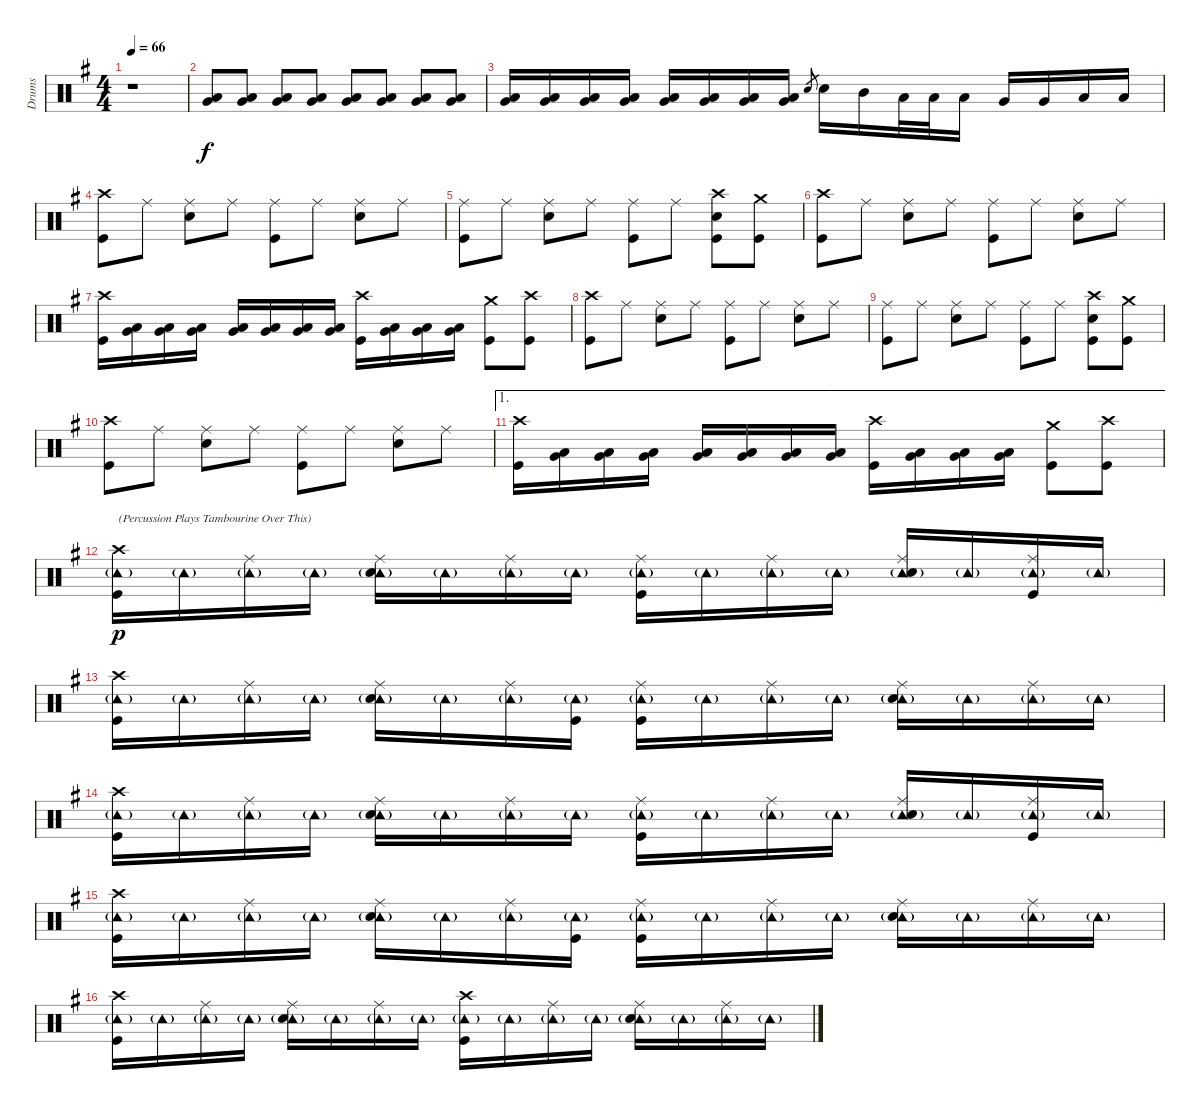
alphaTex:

\track ("Drums" "Drums") {instrument percussion}
\staff {score}
\articulation defaults
\ts (4 4)
\tempo 66
\clef neutral
\ks g
r.1{dy mp} |
("Very Low Tom (hit)" "Low Floor Tom (hit)").8{dy f volume 13} ("Very Low Tom (hit)" "Low Floor Tom (hit)").8 ("Very Low Tom (hit)" "Low Floor Tom (hit)").8 ("Very Low Tom (hit)" "Low Floor Tom (hit)").8 ("Very Low Tom (hit)" "Low Floor Tom (hit)").8 ("Very Low Tom (hit)" "Low Floor Tom (hit)").8 ("Very Low Tom (hit)" "Low Floor Tom (hit)").8 ("Very Low Tom (hit)" "Low Floor Tom (hit)").8 |
("Very Low Tom (hit)" "Low Floor Tom (hit)").16 ("Very Low Tom (hit)" "Low Floor Tom (hit)").16 ("Very Low Tom (hit)" "Low Floor Tom (hit)").16 ("Very Low Tom (hit)" "Low Floor Tom (hit)").16 ("Very Low Tom (hit)" "Low Floor Tom (hit)").16 ("Very Low Tom (hit)" "Low Floor Tom (hit)").16 ("Very Low Tom (hit)" "Low Floor Tom (hit)").16 ("Very Low Tom (hit)" "Low Floor Tom (hit)").16 "Snare (hit) 2".8{gr} "Snare (hit) 2".16 "Mid Tom (hit)".16 "Low Tom (hit)".32 "Low Tom (hit)".32 "Low Tom (hit)".16 "Very Low Tom (hit)".16 "Very Low Tom (hit)".16 "Low Floor Tom (hit)".16 "Low Floor Tom (hit)".16 |
("Crash high (hit)" "Kick (hit)").8 "Ride (middle)".8 ("Ride (middle)" "Snare (hit) 2").8 "Ride (middle)".8 ("Ride (middle)" "Kick (hit)").8 "Ride (middle)".8 ("Ride (middle)" "Snare (hit) 2").8 "Ride (middle)".8 |
("Ride (middle)" "Kick (hit)").8 "Ride (middle)".8 ("Ride (middle)" "Snare (hit) 2").8 "Ride (middle)".8 ("Ride (middle)" "Kick (hit)").8 "Ride (middle)".8 ("Crash high (hit)" "Snare (hit) 2" "Kick (hit)").8 ("Crash medium (hit)" "Kick (hit)").8 |
("Crash high (hit)" "Kick (hit)").8 "Ride (middle)".8 ("Ride (middle)" "Snare (hit) 2").8 "Ride (middle)".8 ("Ride (middle)" "Kick (hit)").8 "Ride (middle)".8 ("Ride (middle)" "Snare (hit) 2").8 "Ride (middle)".8 |
("Crash high (hit)" "Kick (hit)").16 ("Very Low Tom (hit)" "Low Floor Tom (hit)").16 ("Very Low Tom (hit)" "Low Floor Tom (hit)").16 ("Very Low Tom (hit)" "Low Floor Tom (hit)").16 ("Very Low Tom (hit)" "Low Floor Tom (hit)").16 ("Very Low Tom (hit)" "Low Floor Tom (hit)").16 ("Very Low Tom (hit)" "Low Floor Tom (hit)").16 ("Very Low Tom (hit)" "Low Floor Tom (hit)").16 ("Crash high (hit)" "Kick (hit)").16 ("Very Low Tom (hit)" "Low Floor Tom (hit)").16 ("Very Low Tom (hit)" "Low Floor Tom (hit)").16 ("Very Low Tom (hit)" "Low Floor Tom (hit)").16 ("Crash medium (hit)" "Kick (hit)").8 ("Crash high (hit)" "Kick (hit)").8 |
("Crash high (hit)" "Kick (hit)").8 "Ride (middle)".8 ("Ride (middle)" "Snare (hit) 2").8 "Ride (middle)".8 ("Ride (middle)" "Kick (hit)").8 "Ride (middle)".8 ("Ride (middle)" "Snare (hit) 2").8 "Ride (middle)".8 |
("Ride (middle)" "Kick (hit)").8 "Ride (middle)".8 ("Ride (middle)" "Snare (hit) 2").8 "Ride (middle)".8 ("Ride (middle)" "Kick (hit)").8 "Ride (middle)".8 ("Crash high (hit)" "Snare (hit) 2" "Kick (hit)").8 ("Crash medium (hit)" "Kick (hit)").8 |
("Crash high (hit)" "Kick (hit)").8 "Ride (middle)".8 ("Ride (middle)" "Snare (hit) 2").8 "Ride (middle)".8 ("Ride (middle)" "Kick (hit)").8 "Ride (middle)".8 ("Ride (middle)" "Snare (hit) 2").8 "Ride (middle)".8 |
\ae 1
("Crash high (hit)" "Kick (hit)").16 ("Very Low Tom (hit)" "Low Floor Tom (hit)").16 ("Very Low Tom (hit)" "Low Floor Tom (hit)").16 ("Very Low Tom (hit)" "Low Floor Tom (hit)").16 ("Very Low Tom (hit)" "Low Floor Tom (hit)").16 ("Very Low Tom (hit)" "Low Floor Tom (hit)").16 ("Very Low Tom (hit)" "Low Floor Tom (hit)").16 ("Very Low Tom (hit)" "Low Floor Tom (hit)").16 ("Crash high (hit)" "Kick (hit)").16 ("Very Low Tom (hit)" "Low Floor Tom (hit)").16 ("Very Low Tom (hit)" "Low Floor Tom (hit)").16 ("Very Low Tom (hit)" "Low Floor Tom (hit)").16 ("Crash medium (hit)" "Kick (hit)").8 ("Crash high (hit)" "Kick (hit)").8 |
("Crash high (hit)" "Tambourine (hit)"{g} "Kick (hit)").16{txt "(Percussion Plays Tambourine Over This)" dy p} "Tambourine (hit)"{g}.16 ("Ride (middle)" "Tambourine (hit)"{g}).16 "Tambourine (hit)"{g}.16 ("Ride (middle)" "Tambourine (hit)"{g} "Snare (hit) 2").16 "Tambourine (hit)"{g}.16 ("Ride (middle)" "Tambourine (hit)"{g}).16 "Tambourine (hit)"{g}.16 ("Ride (middle)" "Tambourine (hit)"{g} "Kick (hit)").16 "Tambourine (hit)"{g}.16 ("Ride (middle)" "Tambourine (hit)"{g}).16 "Tambourine (hit)"{g}.16 ("Ride (middle)" "Tambourine (hit)"{g} "Snare (hit) 2").16 "Tambourine (hit)"{g}.16 ("Ride (middle)" "Tambourine (hit)"{g} "Kick (hit)").16 "Tambourine (hit)"{g}.16 |
("Crash high (hit)" "Tambourine (hit)"{g} "Kick (hit)").16 "Tambourine (hit)"{g}.16 ("Ride (middle)" "Tambourine (hit)"{g}).16 "Tambourine (hit)"{g}.16 ("Ride (middle)" "Tambourine (hit)"{g} "Snare (hit) 2").16 "Tambourine (hit)"{g}.16 ("Ride (middle)" "Tambourine (hit)"{g}).16 ("Tambourine (hit)"{g} "Kick (hit)").16 ("Ride (middle)" "Tambourine (hit)"{g} "Kick (hit)").16 "Tambourine (hit)"{g}.16 ("Ride (middle)" "Tambourine (hit)"{g}).16 "Tambourine (hit)"{g}.16 ("Ride (middle)" "Tambourine (hit)"{g} "Snare (hit) 2").16 "Tambourine (hit)"{g}.16 ("Ride (middle)" "Tambourine (hit)"{g}).16 "Tambourine (hit)"{g}.16 |
("Crash high (hit)" "Tambourine (hit)"{g} "Kick (hit)").16 "Tambourine (hit)"{g}.16 ("Ride (middle)" "Tambourine (hit)"{g}).16 "Tambourine (hit)"{g}.16 ("Ride (middle)" "Tambourine (hit)"{g} "Snare (hit) 2").16 "Tambourine (hit)"{g}.16 ("Ride (middle)" "Tambourine (hit)"{g}).16 "Tambourine (hit)"{g}.16 ("Ride (middle)" "Tambourine (hit)"{g} "Kick (hit)").16 "Tambourine (hit)"{g}.16 ("Ride (middle)" "Tambourine (hit)"{g}).16 "Tambourine (hit)"{g}.16 ("Ride (middle)" "Tambourine (hit)"{g} "Snare (hit) 2").16 "Tambourine (hit)"{g}.16 ("Ride (middle)" "Tambourine (hit)"{g} "Kick (hit)").16 "Tambourine (hit)"{g}.16 |
("Crash high (hit)" "Tambourine (hit)"{g} "Kick (hit)").16 "Tambourine (hit)"{g}.16 ("Ride (middle)" "Tambourine (hit)"{g}).16 "Tambourine (hit)"{g}.16 ("Ride (middle)" "Tambourine (hit)"{g} "Snare (hit) 2").16 "Tambourine (hit)"{g}.16 ("Ride (middle)" "Tambourine (hit)"{g}).16 ("Tambourine (hit)"{g} "Kick (hit)").16 ("Ride (middle)" "Tambourine (hit)"{g} "Kick (hit)").16 "Tambourine (hit)"{g}.16 ("Ride (middle)" "Tambourine (hit)"{g}).16 "Tambourine (hit)"{g}.16 ("Ride (middle)" "Tambourine (hit)"{g} "Snare (hit) 2").16 "Tambourine (hit)"{g}.16 ("Ride (middle)" "Tambourine (hit)"{g}).16 "Tambourine (hit)"{g}.16 |
("Crash high (hit)" "Tambourine (hit)"{g} "Kick (hit)").16 "Tambourine (hit)"{g}.16 ("Ride (middle)" "Tambourine (hit)"{g}).16 "Tambourine (hit)"{g}.16 ("Ride (middle)" "Tambourine (hit)"{g} "Snare (hit) 2").16 "Tambourine (hit)"{g}.16 ("Ride (middle)" "Tambourine (hit)"{g}).16 "Tambourine (hit)"{g}.16 ("Crash high (hit)" "Tambourine (hit)"{g} "Kick (hit)").16 "Tambourine (hit)"{g}.16 ("Ride (middle)" "Tambourine (hit)"{g}).16 "Tambourine (hit)"{g}.16 ("Ride (middle)" "Tambourine (hit)"{g} "Snare (hit) 2").16 "Tambourine (hit)"{g}.16 ("Ride (middle)" "Tambourine (hit)"{g}).16 "Tambourine (hit)"{g}.16
